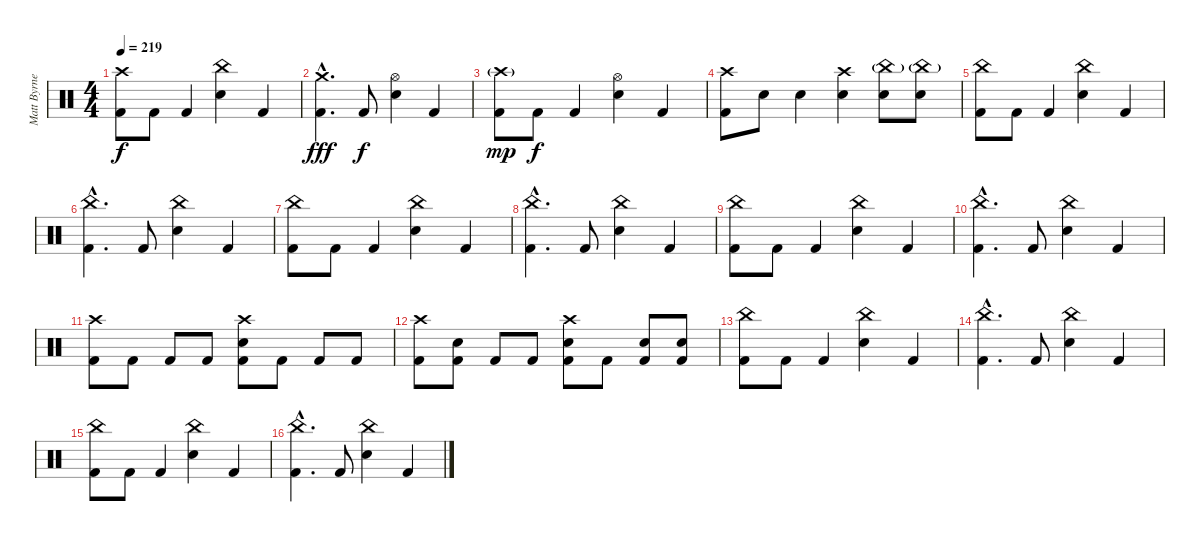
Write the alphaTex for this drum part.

\track ("Matt Byrne (Drums)" "Matt Byrne") {instrument percussion}
\staff {score}
\articulation defaults
\ts (4 4)
\tempo 219
\clef neutral
\ks c
("Crash high (hit)" "Kick (hit) 2").8{dy f} "Kick (hit) 2".8 "Kick (hit) 2".4 ("China (hit)" "Snare (hit) 2").4 "Kick (hit) 2".4 |
("Crash medium (hit)"{hac} "Kick (hit) 2"{hac}).4{d dy fff} "Kick (hit) 2".8{dy f} ("Hi-Hat (open)" "Snare (hit) 2").4 "Kick (hit) 2".4 |
("Crash high (hit)"{g} "Kick (hit) 2").8{dy mp} "Kick (hit) 2".8{dy f} "Kick (hit) 2".4 ("Hi-Hat (open)" "Snare (hit) 2").4 "Kick (hit) 2".4 |
("Kick (hit) 2" "Crash high (hit)").8 "Snare (hit) 2".8 "Snare (hit) 2".4 ("Crash high (hit)" "Snare (hit) 2").4 ("China (hit)"{g} "Snare (hit) 2").8 ("China (hit)"{g} "Snare (hit) 2").8 |
("China (hit)" "Kick (hit) 2").8 "Kick (hit) 2".8 "Kick (hit) 2".4 ("China (hit)" "Snare (hit) 2").4 "Kick (hit) 2".4 |
("China (hit)"{hac} "Kick (hit) 2"{hac}).4{d} "Kick (hit) 2".8 ("China (hit)" "Snare (hit) 2").4 "Kick (hit) 2".4 |
("China (hit)" "Kick (hit) 2").8 "Kick (hit) 2".8 "Kick (hit) 2".4 ("China (hit)" "Snare (hit) 2").4 "Kick (hit) 2".4 |
("China (hit)"{hac} "Kick (hit) 2"{hac}).4{d} "Kick (hit) 2".8 ("China (hit)" "Snare (hit) 2").4 "Kick (hit) 2".4 |
("China (hit)" "Kick (hit) 2").8 "Kick (hit) 2".8 "Kick (hit) 2".4 ("China (hit)" "Snare (hit) 2").4 "Kick (hit) 2".4 |
("China (hit)"{hac} "Kick (hit) 2"{hac}).4{d} "Kick (hit) 2".8 ("China (hit)" "Snare (hit) 2").4 "Kick (hit) 2".4 |
("Crash high (hit)" "Kick (hit) 2").8 "Kick (hit) 2".8 "Kick (hit) 2".8 "Kick (hit) 2".8 ("Crash high (hit)" "Snare (hit) 2" "Kick (hit) 2").8 "Kick (hit) 2".8 "Kick (hit) 2".8 "Kick (hit) 2".8 |
("Crash high (hit)" "Kick (hit) 2").8 ("Snare (hit) 2" "Kick (hit) 2").8 "Kick (hit) 2".8 "Kick (hit) 2".8 ("Snare (hit) 2" "Crash high (hit)" "Kick (hit) 2").8 "Kick (hit) 2".8 ("Snare (hit) 2" "Kick (hit) 2").8 ("Snare (hit) 2" "Kick (hit) 2").8 |
("China (hit)" "Kick (hit) 2").8 "Kick (hit) 2".8 "Kick (hit) 2".4 ("China (hit)" "Snare (hit) 2").4 "Kick (hit) 2".4 |
("China (hit)"{hac} "Kick (hit) 2"{hac}).4{d} "Kick (hit) 2".8 ("China (hit)" "Snare (hit) 2").4 "Kick (hit) 2".4 |
("China (hit)" "Kick (hit) 2").8 "Kick (hit) 2".8 "Kick (hit) 2".4 ("China (hit)" "Snare (hit) 2").4 "Kick (hit) 2".4 |
("China (hit)"{hac} "Kick (hit) 2"{hac}).4{d} "Kick (hit) 2".8 ("China (hit)" "Snare (hit) 2").4 "Kick (hit) 2".4
